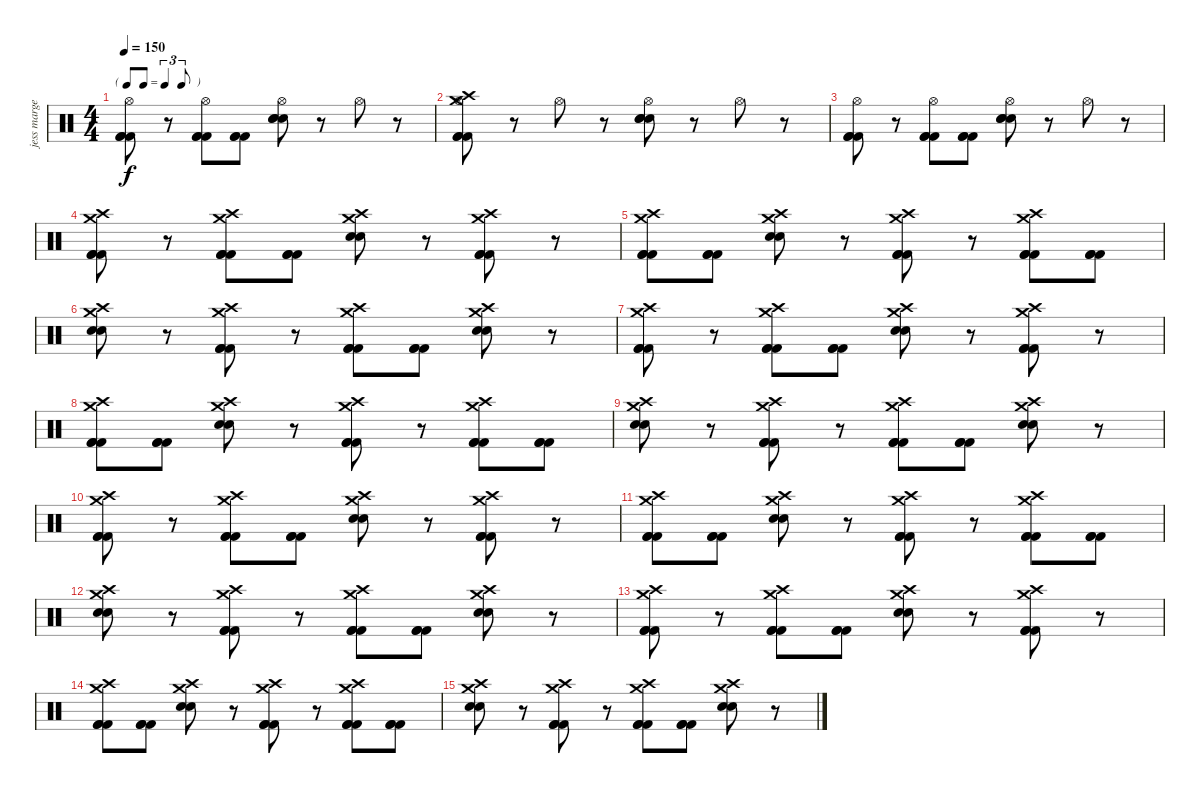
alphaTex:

\track ("jess margera" "jess marge") {instrument percussion}
\staff {score}
\articulation defaults
\ts (4 4)
\tf triplet8th
\tempo 150
\clef neutral
\ks c
("Hi-Hat (open)" "Kick (hit) 2" "Kick (hit) 2" "Kick (hit) 2").8{dy f} r.8 ("Hi-Hat (open)" "Kick (hit) 2" "Kick (hit) 2" "Kick (hit) 2").8 ("Kick (hit) 2" "Kick (hit) 2" "Kick (hit) 2").8 ("Hi-Hat (open)" "Electric Snare (hit)" "Electric Snare (hit)" "Electric Snare (hit)").8 r.8 "Hi-Hat (open)".8 r.8 |
("Hi-Hat (open)" "Crash medium (hit)" "Crash high (hit)" "Kick (hit) 2" "Kick (hit) 2" "Kick (hit) 2").8 r.8 "Hi-Hat (open)".8 r.8 ("Hi-Hat (open)" "Electric Snare (hit)" "Electric Snare (hit)" "Electric Snare (hit)").8 r.8 "Hi-Hat (open)".8 r.8 |
("Hi-Hat (open)" "Kick (hit) 2" "Kick (hit) 2" "Kick (hit) 2").8 r.8 ("Hi-Hat (open)" "Kick (hit) 2" "Kick (hit) 2" "Kick (hit) 2").8 ("Kick (hit) 2" "Kick (hit) 2" "Kick (hit) 2").8 ("Hi-Hat (open)" "Electric Snare (hit)" "Electric Snare (hit)" "Electric Snare (hit)").8 r.8 "Hi-Hat (open)".8 r.8 |
("Crash high (hit)" "Crash medium (hit)" "Kick (hit) 2" "Kick (hit) 2" "Kick (hit) 2").8 r.8 ("Crash high (hit)" "Crash medium (hit)" "Kick (hit) 2" "Kick (hit) 2" "Kick (hit) 2").8 ("Kick (hit) 2" "Kick (hit) 2" "Kick (hit) 2").8 ("Crash high (hit)" "Crash medium (hit)" "Electric Snare (hit)" "Electric Snare (hit)").8 r.8 ("Crash high (hit)" "Crash medium (hit)" "Kick (hit) 2" "Kick (hit) 2" "Kick (hit) 2").8 r.8 |
("Crash high (hit)" "Crash medium (hit)" "Kick (hit) 2" "Kick (hit) 2" "Kick (hit) 2").8 ("Kick (hit) 2" "Kick (hit) 2" "Kick (hit) 2").8 ("Crash high (hit)" "Crash medium (hit)" "Electric Snare (hit)" "Electric Snare (hit)").8 r.8 ("Crash high (hit)" "Crash medium (hit)" "Kick (hit) 2" "Kick (hit) 2" "Kick (hit) 2").8 r.8 ("Crash high (hit)" "Crash medium (hit)" "Kick (hit) 2" "Kick (hit) 2" "Kick (hit) 2").8 ("Kick (hit) 2" "Kick (hit) 2" "Kick (hit) 2").8 |
("Crash high (hit)" "Crash medium (hit)" "Electric Snare (hit)" "Electric Snare (hit)").8 r.8 ("Crash high (hit)" "Crash medium (hit)" "Kick (hit) 2" "Kick (hit) 2" "Kick (hit) 2").8 r.8 ("Crash high (hit)" "Crash medium (hit)" "Kick (hit) 2" "Kick (hit) 2" "Kick (hit) 2").8 ("Kick (hit) 2" "Kick (hit) 2" "Kick (hit) 2").8 ("Crash high (hit)" "Crash medium (hit)" "Electric Snare (hit)" "Electric Snare (hit)").8 r.8 |
("Crash high (hit)" "Crash medium (hit)" "Kick (hit) 2" "Kick (hit) 2" "Kick (hit) 2").8 r.8 ("Crash high (hit)" "Crash medium (hit)" "Kick (hit) 2" "Kick (hit) 2" "Kick (hit) 2").8 ("Kick (hit) 2" "Kick (hit) 2" "Kick (hit) 2").8 ("Crash high (hit)" "Crash medium (hit)" "Electric Snare (hit)" "Electric Snare (hit)").8 r.8 ("Crash high (hit)" "Crash medium (hit)" "Kick (hit) 2" "Kick (hit) 2" "Kick (hit) 2").8 r.8 |
("Crash high (hit)" "Crash medium (hit)" "Kick (hit) 2" "Kick (hit) 2" "Kick (hit) 2").8 ("Kick (hit) 2" "Kick (hit) 2" "Kick (hit) 2").8 ("Crash high (hit)" "Crash medium (hit)" "Electric Snare (hit)" "Electric Snare (hit)").8 r.8 ("Crash high (hit)" "Crash medium (hit)" "Kick (hit) 2" "Kick (hit) 2" "Kick (hit) 2").8 r.8 ("Crash high (hit)" "Crash medium (hit)" "Kick (hit) 2" "Kick (hit) 2" "Kick (hit) 2").8 ("Kick (hit) 2" "Kick (hit) 2" "Kick (hit) 2").8 |
("Crash high (hit)" "Crash medium (hit)" "Electric Snare (hit)" "Electric Snare (hit)").8 r.8 ("Crash high (hit)" "Crash medium (hit)" "Kick (hit) 2" "Kick (hit) 2" "Kick (hit) 2").8 r.8 ("Crash high (hit)" "Crash medium (hit)" "Kick (hit) 2" "Kick (hit) 2" "Kick (hit) 2").8 ("Kick (hit) 2" "Kick (hit) 2" "Kick (hit) 2").8 ("Crash high (hit)" "Crash medium (hit)" "Electric Snare (hit)" "Electric Snare (hit)").8 r.8 |
("Crash high (hit)" "Crash medium (hit)" "Kick (hit) 2" "Kick (hit) 2" "Kick (hit) 2").8 r.8 ("Crash high (hit)" "Crash medium (hit)" "Kick (hit) 2" "Kick (hit) 2" "Kick (hit) 2").8 ("Kick (hit) 2" "Kick (hit) 2" "Kick (hit) 2").8 ("Crash high (hit)" "Crash medium (hit)" "Electric Snare (hit)" "Electric Snare (hit)").8 r.8 ("Crash high (hit)" "Crash medium (hit)" "Kick (hit) 2" "Kick (hit) 2" "Kick (hit) 2").8 r.8 |
("Crash high (hit)" "Crash medium (hit)" "Kick (hit) 2" "Kick (hit) 2" "Kick (hit) 2").8 ("Kick (hit) 2" "Kick (hit) 2" "Kick (hit) 2").8 ("Crash high (hit)" "Crash medium (hit)" "Electric Snare (hit)" "Electric Snare (hit)").8 r.8 ("Crash high (hit)" "Crash medium (hit)" "Kick (hit) 2" "Kick (hit) 2" "Kick (hit) 2").8 r.8 ("Crash high (hit)" "Crash medium (hit)" "Kick (hit) 2" "Kick (hit) 2" "Kick (hit) 2").8 ("Kick (hit) 2" "Kick (hit) 2" "Kick (hit) 2").8 |
("Crash high (hit)" "Crash medium (hit)" "Electric Snare (hit)" "Electric Snare (hit)").8 r.8 ("Crash high (hit)" "Crash medium (hit)" "Kick (hit) 2" "Kick (hit) 2" "Kick (hit) 2").8 r.8 ("Crash high (hit)" "Crash medium (hit)" "Kick (hit) 2" "Kick (hit) 2" "Kick (hit) 2").8 ("Kick (hit) 2" "Kick (hit) 2" "Kick (hit) 2").8 ("Crash high (hit)" "Crash medium (hit)" "Electric Snare (hit)" "Electric Snare (hit)").8 r.8 |
("Crash high (hit)" "Crash medium (hit)" "Kick (hit) 2" "Kick (hit) 2" "Kick (hit) 2").8 r.8 ("Crash high (hit)" "Crash medium (hit)" "Kick (hit) 2" "Kick (hit) 2" "Kick (hit) 2").8 ("Kick (hit) 2" "Kick (hit) 2" "Kick (hit) 2").8 ("Crash high (hit)" "Crash medium (hit)" "Electric Snare (hit)" "Electric Snare (hit)").8 r.8 ("Crash high (hit)" "Crash medium (hit)" "Kick (hit) 2" "Kick (hit) 2" "Kick (hit) 2").8 r.8 |
("Crash high (hit)" "Crash medium (hit)" "Kick (hit) 2" "Kick (hit) 2" "Kick (hit) 2").8 ("Kick (hit) 2" "Kick (hit) 2" "Kick (hit) 2").8 ("Crash high (hit)" "Crash medium (hit)" "Electric Snare (hit)" "Electric Snare (hit)").8 r.8 ("Crash high (hit)" "Crash medium (hit)" "Kick (hit) 2" "Kick (hit) 2" "Kick (hit) 2").8 r.8 ("Crash high (hit)" "Crash medium (hit)" "Kick (hit) 2" "Kick (hit) 2" "Kick (hit) 2").8 ("Kick (hit) 2" "Kick (hit) 2" "Kick (hit) 2").8 |
("Crash high (hit)" "Crash medium (hit)" "Electric Snare (hit)" "Electric Snare (hit)").8 r.8 ("Crash high (hit)" "Crash medium (hit)" "Kick (hit) 2" "Kick (hit) 2" "Kick (hit) 2").8 r.8 ("Crash high (hit)" "Crash medium (hit)" "Kick (hit) 2" "Kick (hit) 2" "Kick (hit) 2").8 ("Kick (hit) 2" "Kick (hit) 2" "Kick (hit) 2").8 ("Crash high (hit)" "Crash medium (hit)" "Electric Snare (hit)" "Electric Snare (hit)").8 r.8
